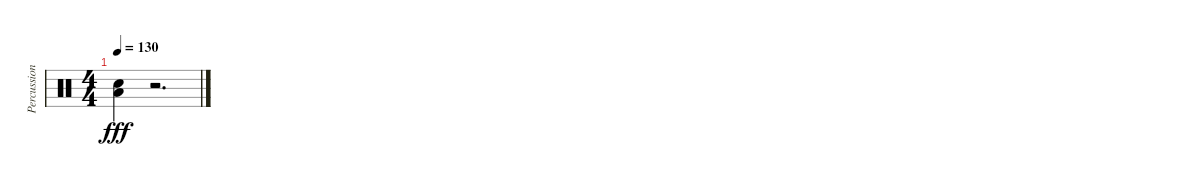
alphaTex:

\track ("Percussions" "Percussion") {instrument percussion}
\staff {score}
\articulation defaults
\ts (4 4)
\tempo 130
\clef neutral
\ks c
("Electric Snare (hit)" "Low Tom (hit)").4{dy fff} r.2{d}
